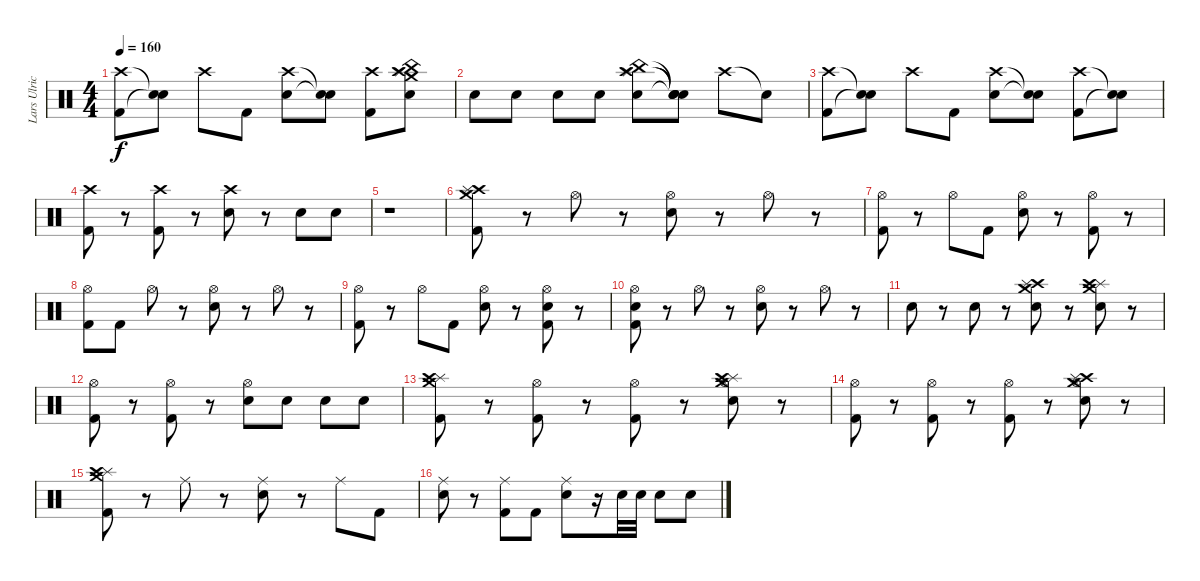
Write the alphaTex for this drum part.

\track ("Lars Ulrich" "Lars Ulric") {instrument percussion}
\staff {score}
\articulation defaults
\ts (4 4)
\tempo 160
\clef neutral
\ks c
("Crash high (hit)" "Kick (hit) 2").8{dy f} ("Snare (hit)"{t} "Snare (hit)"{t}).8 "Crash high (hit)".8 "Kick (hit) 2".8 ("Crash high (hit)" "Snare (hit) 2").8 ("Snare (hit)"{t} "Snare (hit)"{t}).8 ("Kick (hit) 2" "Crash high (hit)").8 ("Crash medium (hit)" "Splash (hit)" "China (hit)" "Crash high (hit)" "Snare (hit) 2").8 |
"Snare (hit) 2".8 "Snare (hit) 2".8 "Snare (hit) 2".8 "Snare (hit) 2".8 ("Crash high (hit)" "China (hit)" "Splash (hit)" "Snare (hit) 2").8 ("Snare (hit)"{t} "Snare (hit)"{t} "Snare (hit)"{t} "Snare (hit)"{t}).8 "Crash high (hit)".8 "Snare (hit)"{t}.8 |
("Crash high (hit)" "Kick (hit) 2").8 ("Snare (hit)"{t} "Snare (hit)"{t}).8 "Crash high (hit)".8 "Kick (hit) 2".8 ("Crash high (hit)" "Snare (hit) 2").8 ("Snare (hit)"{t} "Snare (hit)"{t}).8 ("Crash high (hit)" "Kick (hit) 2").8 ("Snare (hit)"{t} "Snare (hit)"{t}).8 |
("Crash high (hit)" "Kick (hit) 2").8 r.8 ("Crash high (hit)" "Kick (hit) 2").8 r.8 ("Crash high (hit)" "Snare (hit) 2").8 r.8 "Snare (hit) 2".8 "Snare (hit) 2".8 |
r.1 |
("Crash medium (hit)" "Crash high (hit)" "Splash (hit)" "Kick (hit) 2").8 r.8 "Hi-Hat (open)".8 r.8 ("Hi-Hat (open)" "Snare (hit) 2").8 r.8 "Hi-Hat (open)".8 r.8 |
("Hi-Hat (open)" "Kick (hit) 2").8 r.8 "Hi-Hat (open)".8 "Kick (hit) 2".8 ("Hi-Hat (open)" "Snare (hit) 2").8 r.8 ("Hi-Hat (open)" "Kick (hit) 2").8 r.8 |
("Hi-Hat (open)" "Kick (hit) 2").8 "Kick (hit) 2".8 "Hi-Hat (open)".8 r.8 ("Hi-Hat (open)" "Snare (hit) 2").8 r.8 "Hi-Hat (open)".8 r.8 |
("Hi-Hat (open)" "Kick (hit) 2").8 r.8 "Hi-Hat (open)".8 "Kick (hit) 2".8 ("Hi-Hat (open)" "Snare (hit) 2").8 r.8 ("Hi-Hat (open)" "Kick (hit) 2" "Snare (hit) 2").8 r.8 |
("Hi-Hat (open)" "Kick (hit) 2" "Snare (hit) 2").8 r.8 "Hi-Hat (open)".8 r.8 ("Hi-Hat (open)" "Snare (hit) 2").8 r.8 "Hi-Hat (open)".8 r.8 |
"Snare (hit) 2".8 r.8 "Snare (hit) 2".8 r.8 ("Crash high (hit)" "Splash (hit)" "Crash medium (hit)" "Snare (hit) 2").8 r.8 ("Splash (hit)" "Crash medium (hit)" "Snare (hit) 2" "Crash high (hit)").8 r.8 |
("Kick (hit) 2" "Hi-Hat (open)").8 r.8 ("Kick (hit) 2" "Hi-Hat (open)").8 r.8 ("Snare (hit) 2" "Hi-Hat (open)").8 "Snare (hit) 2".8 "Snare (hit) 2".8 "Snare (hit) 2".8 |
("Crash medium (hit)" "Splash (hit)" "Crash high (hit)" "Kick (hit) 2").8 r.8 ("Kick (hit) 2" "Hi-Hat (open)").8 r.8 ("Kick (hit) 2" "Hi-Hat (open)").8 r.8 ("Crash medium (hit)" "Splash (hit)" "Crash high (hit)" "Snare (hit) 2" "Hi-Hat (open)").8 r.8 |
("Hi-Hat (open)" "Kick (hit) 2").8 r.8 ("Hi-Hat (open)" "Kick (hit) 2").8 r.8 ("Hi-Hat (open)" "Kick (hit) 2").8 r.8 ("Crash high (hit)" "Splash (hit)" "Crash medium (hit)" "Hi-Hat (open)" "Snare (hit) 2").8 r.8 |
("Crash medium (hit)" "Splash (hit)" "Crash high (hit)" "Kick (hit) 2").8 r.8 "Ride (middle)".8 r.8 ("Ride (middle)" "Snare (hit) 2").8 r.8 "Ride (middle)".8 "Kick (hit) 2".8 |
("Ride (middle)" "Snare (hit) 2").8 r.8 ("Ride (middle)" "Kick (hit) 2").8 "Kick (hit) 2".8 ("Ride (middle)" "Snare (hit) 2").8 r.16 "Snare (hit) 2".32 "Snare (hit) 2".32 "Snare (hit) 2".8 "Snare (hit) 2".8
